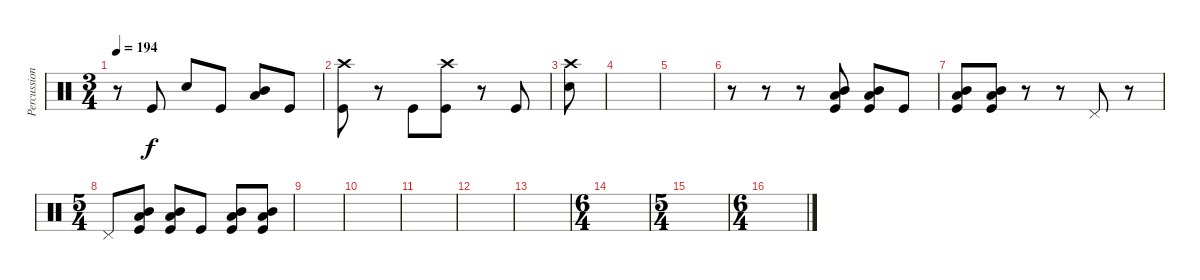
\track ("Percussion" "Percussion") {instrument percussion}
\staff {score}
\articulation defaults
\ts (3 4)
\tempo 194
\clef neutral
\ks c
r.8{dy f} "Kick (hit)".8 "Snare (hit) 2".8 "Kick (hit)".8 ("Low Tom (hit)" "Mid Tom (hit)").8 "Kick (hit)".8 |
("Crash high (hit)" "Kick (hit)").8 r.8 "Kick (hit)".8 ("Crash high (hit)" "Kick (hit)").8 r.8 "Kick (hit)".8 |
("Snare (hit) 2" "Crash high (hit)").8 |
|
|
r.8 r.8 r.8 ("Mid Tom (hit)" "Low Tom (hit)" "Kick (hit)").8 ("Mid Tom (hit)" "Low Tom (hit)" "Kick (hit)").8 "Kick (hit)".8 |
("Mid Tom (hit)" "Low Tom (hit)" "Kick (hit)").8 ("Mid Tom (hit)" "Low Tom (hit)" "Kick (hit)").8 r.8 r.8 "Pedal Hi-Hat (hit)".8 r.8 |
\ts (5 4)
"Pedal Hi-Hat (hit)".8 ("Mid Tom (hit)" "Low Tom (hit)" "Kick (hit)").8 ("Mid Tom (hit)" "Low Tom (hit)" "Kick (hit)").8 "Kick (hit)".8 ("Mid Tom (hit)" "Low Tom (hit)" "Kick (hit)").8 ("Mid Tom (hit)" "Low Tom (hit)" "Kick (hit)").8 |
|
|
|
|
|
\ts (6 4)
|
\ts (5 4)
|
\ts (6 4)
